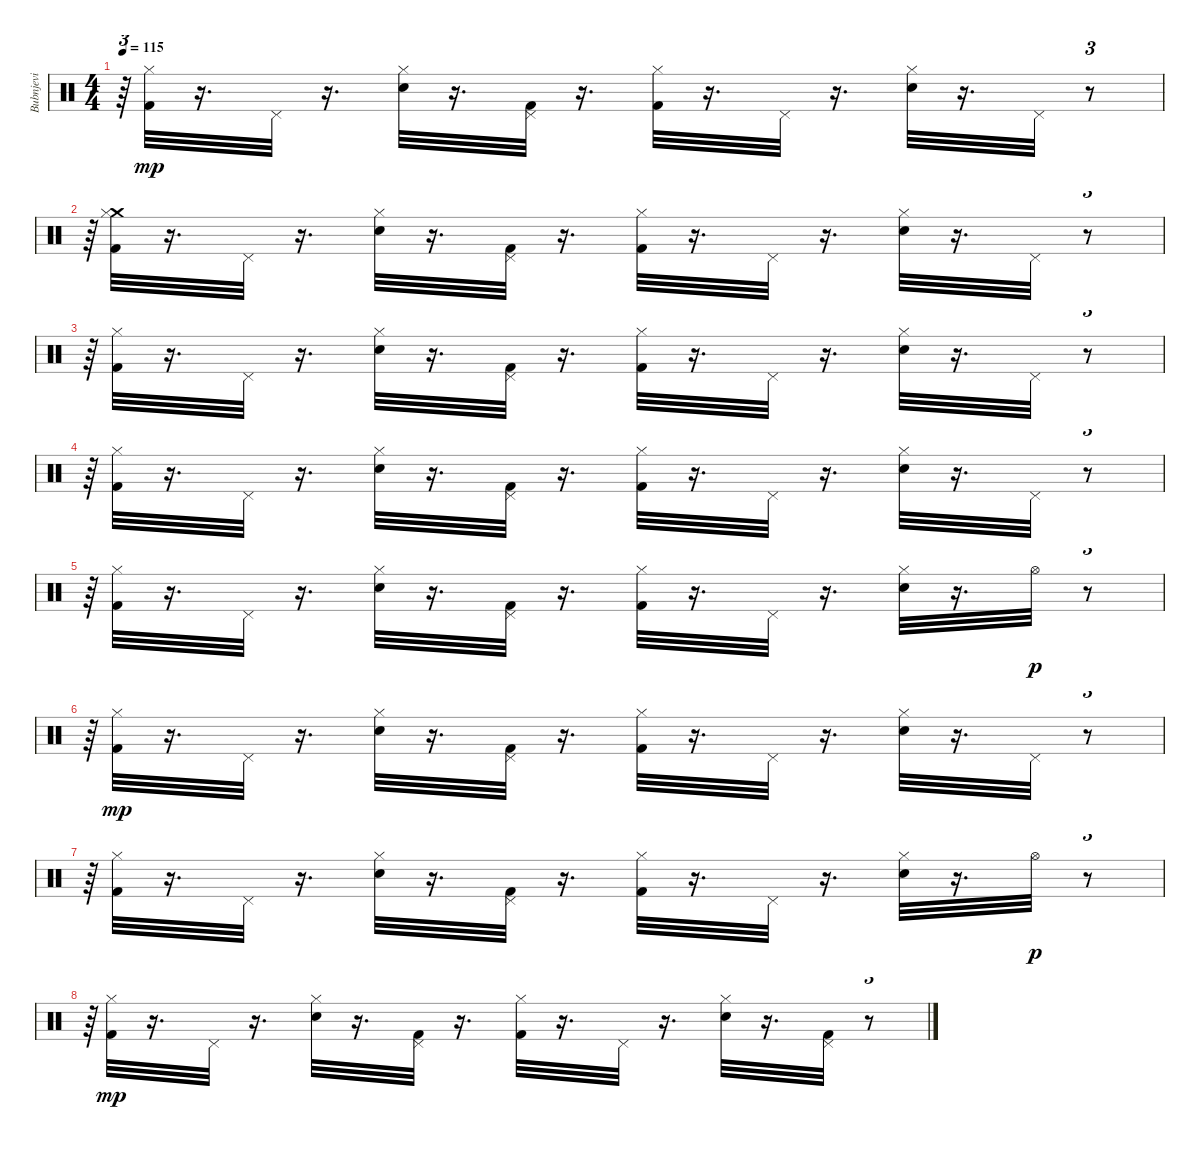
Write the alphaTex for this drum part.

\track ("Bubnjevi" "Bubnjevi") {instrument percussion}
\staff {score}
\articulation defaults
\ts (4 4)
\tempo 115
\clef neutral
\ks c
r.64{tu (3 2) dy mp} ("Kick (hit) 2" "Hi-Hat (closed)").32 r.16{d} "Pedal Hi-Hat (hit)".32 r.16{d} ("Electric Snare (hit)" "Hi-Hat (closed)").32 r.16{d} ("Kick (hit) 2" "Pedal Hi-Hat (hit)").32 r.16{d} ("Kick (hit) 2" "Hi-Hat (closed)").32 r.16{d} "Pedal Hi-Hat (hit)".32 r.16{d} ("Electric Snare (hit)" "Hi-Hat (closed)").32 r.16{d} "Pedal Hi-Hat (hit)".32 r.8{tu (3 2)} |
r.64{tu (3 2)} ("Crash medium (hit)" "Kick (hit) 2" "Hi-Hat (closed)").32 r.16{d} "Pedal Hi-Hat (hit)".32 r.16{d} ("Electric Snare (hit)" "Hi-Hat (closed)").32 r.16{d} ("Kick (hit) 2" "Pedal Hi-Hat (hit)").32 r.16{d} ("Kick (hit) 2" "Hi-Hat (closed)").32 r.16{d} "Pedal Hi-Hat (hit)".32 r.16{d} ("Electric Snare (hit)" "Hi-Hat (closed)").32 r.16{d} "Pedal Hi-Hat (hit)".32 r.8{tu (3 2)} |
r.64{tu (3 2)} ("Hi-Hat (closed)" "Kick (hit) 2").32 r.16{d} "Pedal Hi-Hat (hit)".32 r.16{d} ("Hi-Hat (closed)" "Electric Snare (hit)").32 r.16{d} ("Pedal Hi-Hat (hit)" "Kick (hit) 2").32 r.16{d} ("Hi-Hat (closed)" "Kick (hit) 2").32 r.16{d} "Pedal Hi-Hat (hit)".32 r.16{d} ("Hi-Hat (closed)" "Electric Snare (hit)").32 r.16{d} "Pedal Hi-Hat (hit)".32 r.8{tu (3 2)} |
r.64{tu (3 2)} ("Hi-Hat (closed)" "Kick (hit) 2").32 r.16{d} "Pedal Hi-Hat (hit)".32 r.16{d} ("Hi-Hat (closed)" "Electric Snare (hit)").32 r.16{d} ("Pedal Hi-Hat (hit)" "Kick (hit) 2").32 r.16{d} ("Hi-Hat (closed)" "Kick (hit) 2").32 r.16{d} "Pedal Hi-Hat (hit)".32 r.16{d} ("Hi-Hat (closed)" "Electric Snare (hit)").32 r.16{d} "Pedal Hi-Hat (hit)".32 r.8{tu (3 2)} |
r.64{tu (3 2)} ("Kick (hit) 2" "Hi-Hat (closed)").32 r.16{d} "Pedal Hi-Hat (hit)".32 r.16{d} ("Electric Snare (hit)" "Hi-Hat (closed)").32 r.16{d} ("Kick (hit) 2" "Pedal Hi-Hat (hit)").32 r.16{d} ("Kick (hit) 2" "Hi-Hat (closed)").32 r.16{d} "Pedal Hi-Hat (hit)".32 r.16{d} ("Electric Snare (hit)" "Hi-Hat (closed)").32 r.16{d} "Hi-Hat (open)".32{dy p} r.8{tu (3 2)} |
r.64{tu (3 2)} ("Hi-Hat (closed)" "Kick (hit) 2").32{dy mp} r.16{d} "Pedal Hi-Hat (hit)".32 r.16{d} ("Hi-Hat (closed)" "Electric Snare (hit)").32 r.16{d} ("Pedal Hi-Hat (hit)" "Kick (hit) 2").32 r.16{d} ("Hi-Hat (closed)" "Kick (hit) 2").32 r.16{d} "Pedal Hi-Hat (hit)".32 r.16{d} ("Hi-Hat (closed)" "Electric Snare (hit)").32 r.16{d} "Pedal Hi-Hat (hit)".32 r.8{tu (3 2)} |
r.64{tu (3 2)} ("Kick (hit) 2" "Hi-Hat (closed)").32 r.16{d} "Pedal Hi-Hat (hit)".32 r.16{d} ("Electric Snare (hit)" "Hi-Hat (closed)").32 r.16{d} ("Kick (hit) 2" "Pedal Hi-Hat (hit)").32 r.16{d} ("Kick (hit) 2" "Hi-Hat (closed)").32 r.16{d} "Pedal Hi-Hat (hit)".32 r.16{d} ("Electric Snare (hit)" "Hi-Hat (closed)").32 r.16{d} "Hi-Hat (open)".32{dy p} r.8{tu (3 2)} |
r.64{tu (3 2)} ("Kick (hit) 2" "Hi-Hat (closed)").32{dy mp} r.16{d} "Pedal Hi-Hat (hit)".32 r.16{d} ("Electric Snare (hit)" "Hi-Hat (closed)").32 r.16{d} ("Kick (hit) 2" "Pedal Hi-Hat (hit)").32 r.16{d} ("Kick (hit) 2" "Hi-Hat (closed)").32 r.16{d} "Pedal Hi-Hat (hit)".32 r.16{d} ("Electric Snare (hit)" "Hi-Hat (closed)").32 r.16{d} ("Kick (hit) 2" "Pedal Hi-Hat (hit)").32 r.8{tu (3 2)}
